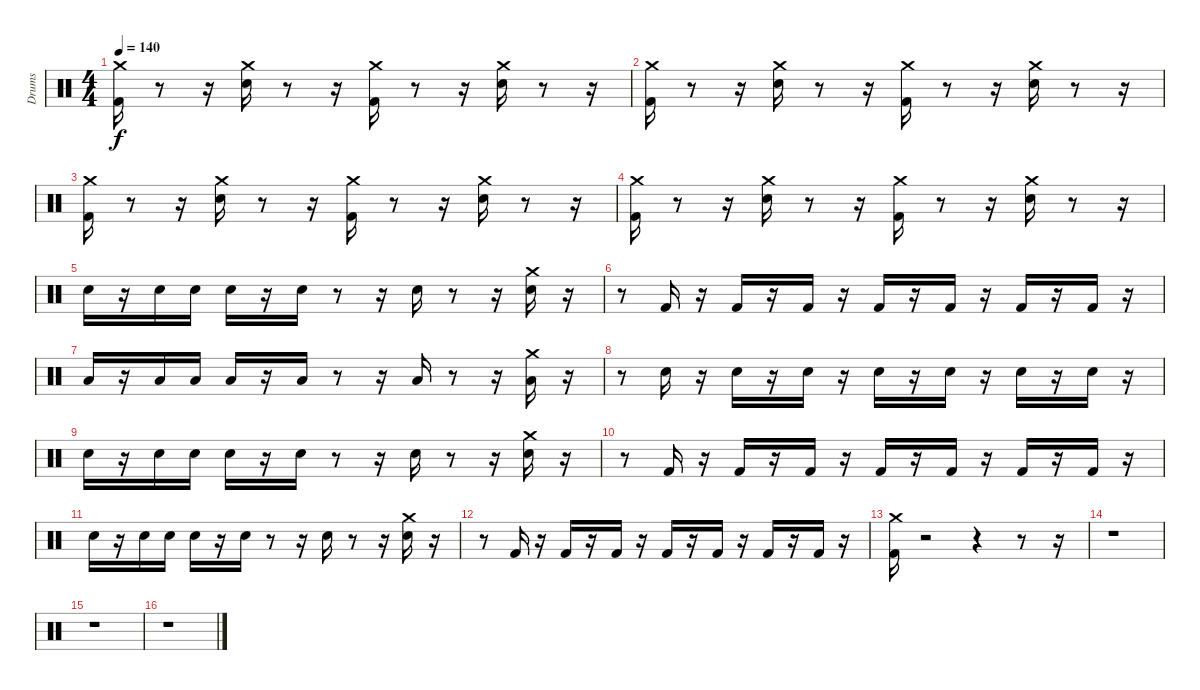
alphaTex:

\track ("Drums               " "Drums     ") {instrument percussion}
\staff {score}
\articulation defaults
\ts (4 4)
\tempo 140
\clef neutral
\ks c
("Kick (hit) 2" "Crash medium (hit)").16{dy f} r.8 r.16 ("Electric Snare (hit)" "Crash medium (hit)").16 r.8 r.16 ("Kick (hit) 2" "Crash medium (hit)").16 r.8 r.16 ("Electric Snare (hit)" "Crash medium (hit)").16 r.8 r.16 |
("Kick (hit) 2" "Crash medium (hit)").16 r.8 r.16 ("Electric Snare (hit)" "Crash medium (hit)").16 r.8 r.16 ("Kick (hit) 2" "Crash medium (hit)").16 r.8 r.16 ("Electric Snare (hit)" "Crash medium (hit)").16 r.8 r.16 |
("Kick (hit) 2" "Crash medium (hit)").16 r.8 r.16 ("Electric Snare (hit)" "Crash medium (hit)").16 r.8 r.16 ("Kick (hit) 2" "Crash medium (hit)").16 r.8 r.16 ("Electric Snare (hit)" "Crash medium (hit)").16 r.8 r.16 |
("Kick (hit) 2" "Crash medium (hit)").16 r.8 r.16 ("Electric Snare (hit)" "Crash medium (hit)").16 r.8 r.16 ("Kick (hit) 2" "Crash medium (hit)").16 r.8 r.16 ("Electric Snare (hit)" "Crash medium (hit)").16 r.8 r.16 |
"Electric Snare (hit)".16 r.16 "Electric Snare (hit)".16 "Electric Snare (hit)".16 "Electric Snare (hit)".16 r.16 "Electric Snare (hit)".16 r.8 r.16 "Electric Snare (hit)".16 r.8 r.16 ("Electric Snare (hit)" "Crash medium (hit)").16 r.16 |
r.8 "Kick (hit) 2".16 r.16 "Kick (hit) 2".16 r.16 "Kick (hit) 2".16 r.16 "Kick (hit) 2".16 r.16 "Kick (hit) 2".16 r.16 "Kick (hit) 2".16 r.16 "Kick (hit) 2".16 r.16 |
"Low Floor Tom (hit)".16 r.16 "Low Floor Tom (hit)".16 "Low Floor Tom (hit)".16 "Low Floor Tom (hit)".16 r.16 "Low Floor Tom (hit)".16 r.8 r.16 "Low Floor Tom (hit)".16 r.8 r.16 ("Low Floor Tom (hit)" "Crash medium (hit)").16 r.16 |
r.8 "Electric Snare (hit)".16 r.16 "Electric Snare (hit)".16 r.16 "Electric Snare (hit)".16 r.16 "Electric Snare (hit)".16 r.16 "Electric Snare (hit)".16 r.16 "Electric Snare (hit)".16 r.16 "Electric Snare (hit)".16 r.16 |
"Electric Snare (hit)".16 r.16 "Electric Snare (hit)".16 "Electric Snare (hit)".16 "Electric Snare (hit)".16 r.16 "Electric Snare (hit)".16 r.8 r.16 "Electric Snare (hit)".16 r.8 r.16 ("Electric Snare (hit)" "Crash medium (hit)").16 r.16 |
r.8 "Kick (hit) 2".16 r.16 "Kick (hit) 2".16 r.16 "Kick (hit) 2".16 r.16 "Kick (hit) 2".16 r.16 "Kick (hit) 2".16 r.16 "Kick (hit) 2".16 r.16 "Kick (hit) 2".16 r.16 |
"Electric Snare (hit)".16 r.16 "Electric Snare (hit)".16 "Electric Snare (hit)".16 "Electric Snare (hit)".16 r.16 "Electric Snare (hit)".16 r.8 r.16 "Electric Snare (hit)".16 r.8 r.16 ("Electric Snare (hit)" "Crash medium (hit)").16 r.16 |
r.8 "Kick (hit) 2".16 r.16 "Kick (hit) 2".16 r.16 "Kick (hit) 2".16 r.16 "Kick (hit) 2".16 r.16 "Kick (hit) 2".16 r.16 "Kick (hit) 2".16 r.16 "Kick (hit) 2".16 r.16 |
("Kick (hit) 2" "Crash medium (hit)").16 r.2 r.4 r.8 r.16 |
r.1 |
r.1 |
r.1
